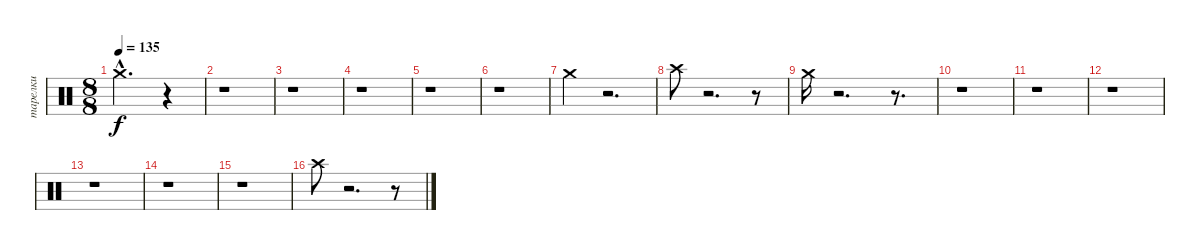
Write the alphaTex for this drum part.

\track ("тарелки" "тарелки") {instrument percussion}
\staff {score}
\articulation defaults
\ts (8 8)
\tempo 135
\clef neutral
\ks c "Crash medium (hit)"{hac}.2{d dy f}
r.4 |
r.1 |
r.1 |
r.1 |
r.1 |
r.1 |
"Crash medium (hit)".4 r.2{d} |
"Crash high (hit)".8 r.2{d} r.8 |
"Crash medium (hit)".16 r.2{d} r.8{d} |
r.1 |
r.1 |
r.1 |
r.1 |
r.1 |
r.1 |
"Crash high (hit)".8 r.2{d} r.8
